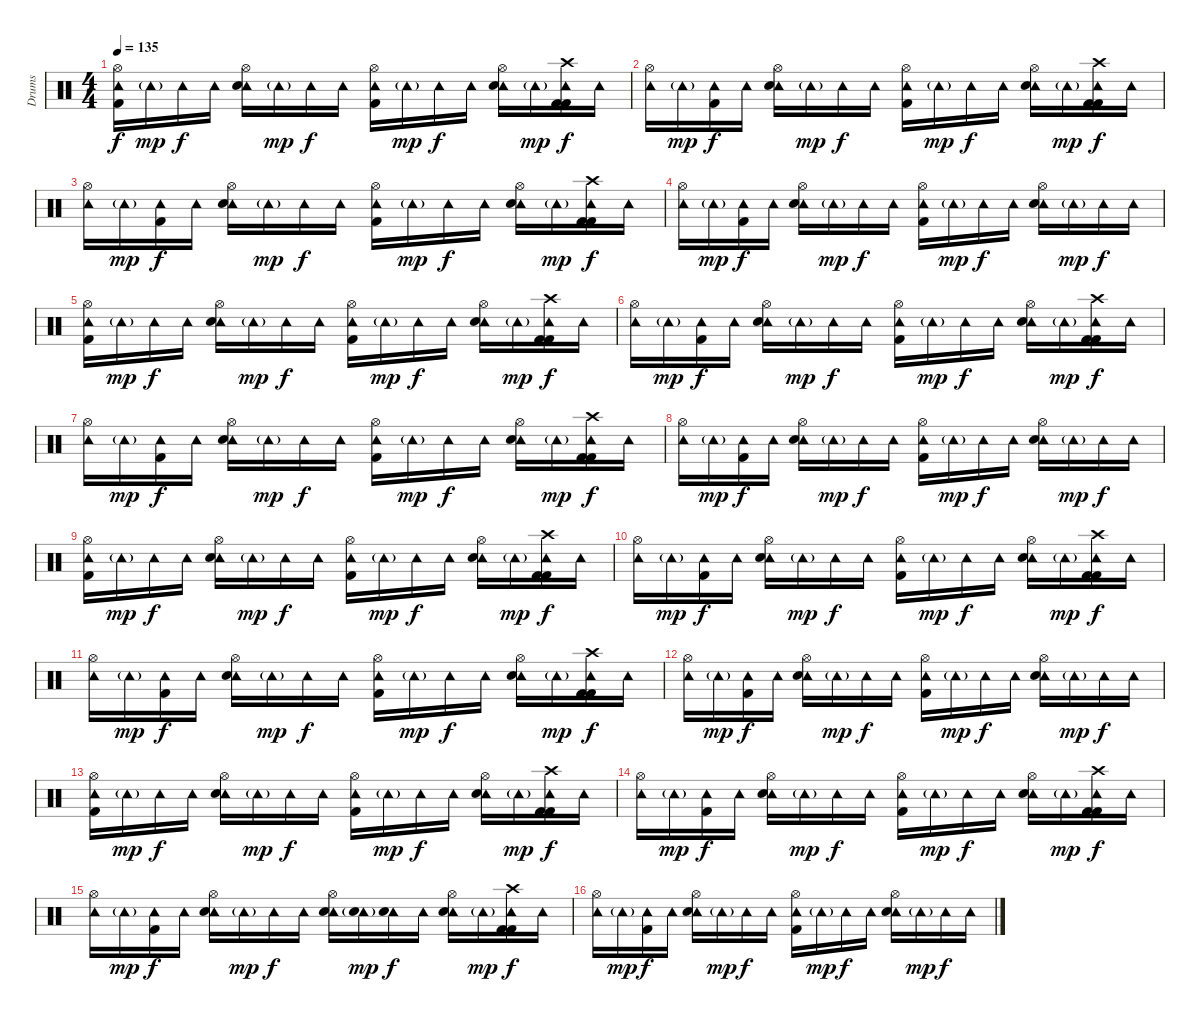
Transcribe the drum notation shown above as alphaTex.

\track ("Drums" "Drums") {instrument percussion}
\staff {score}
\articulation defaults
\ts (4 4)
\tempo 135
\clef neutral
\ks c
("Hi-Hat (open)" "Tambourine (hit)" "Kick (hit) 2").16{dy f} "Tambourine (hit)"{g}.16{dy mp} "Tambourine (hit)".16{dy f} "Tambourine (hit)".16 ("Hi-Hat (open)" "Tambourine (hit)" "Electric Snare (hit)").16 "Tambourine (hit)"{g}.16{dy mp} "Tambourine (hit)".16{dy f} "Tambourine (hit)".16 ("Hi-Hat (open)" "Tambourine (hit)" "Kick (hit) 2").16 "Tambourine (hit)"{g}.16{dy mp} "Tambourine (hit)".16{dy f} "Tambourine (hit)".16 ("Hi-Hat (open)" "Tambourine (hit)" "Electric Snare (hit)").16 "Tambourine (hit)"{g}.16{dy mp} ("Crash high (hit)" "Tambourine (hit)" "Kick (hit) 2" "Kick (hit) 2").16{dy f} "Tambourine (hit)".16 |
("Hi-Hat (open)" "Tambourine (hit)").16 "Tambourine (hit)"{g}.16{dy mp} ("Tambourine (hit)" "Kick (hit) 2").16{dy f} "Tambourine (hit)".16 ("Hi-Hat (open)" "Tambourine (hit)" "Electric Snare (hit)").16 "Tambourine (hit)"{g}.16{dy mp} "Tambourine (hit)".16{dy f} "Tambourine (hit)".16 ("Hi-Hat (open)" "Tambourine (hit)" "Kick (hit) 2").16 "Tambourine (hit)"{g}.16{dy mp} "Tambourine (hit)".16{dy f} "Tambourine (hit)".16 ("Hi-Hat (open)" "Tambourine (hit)" "Electric Snare (hit)").16 "Tambourine (hit)"{g}.16{dy mp} ("Crash high (hit)" "Tambourine (hit)" "Kick (hit) 2" "Kick (hit) 2").16{dy f} "Tambourine (hit)".16 |
("Hi-Hat (open)" "Tambourine (hit)").16 "Tambourine (hit)"{g}.16{dy mp} ("Tambourine (hit)" "Kick (hit) 2").16{dy f} "Tambourine (hit)".16 ("Hi-Hat (open)" "Tambourine (hit)" "Electric Snare (hit)").16 "Tambourine (hit)"{g}.16{dy mp} "Tambourine (hit)".16{dy f} "Tambourine (hit)".16 ("Hi-Hat (open)" "Tambourine (hit)" "Kick (hit) 2").16 "Tambourine (hit)"{g}.16{dy mp} "Tambourine (hit)".16{dy f} "Tambourine (hit)".16 ("Hi-Hat (open)" "Tambourine (hit)" "Electric Snare (hit)").16 "Tambourine (hit)"{g}.16{dy mp} ("Crash high (hit)" "Tambourine (hit)" "Kick (hit) 2" "Kick (hit) 2").16{dy f} "Tambourine (hit)".16 |
("Hi-Hat (open)" "Tambourine (hit)").16 "Tambourine (hit)"{g}.16{dy mp} ("Tambourine (hit)" "Kick (hit) 2").16{dy f} "Tambourine (hit)".16 ("Hi-Hat (open)" "Tambourine (hit)" "Electric Snare (hit)").16 "Tambourine (hit)"{g}.16{dy mp} "Tambourine (hit)".16{dy f} "Tambourine (hit)".16 ("Hi-Hat (open)" "Tambourine (hit)" "Kick (hit) 2").16 "Tambourine (hit)"{g}.16{dy mp} "Tambourine (hit)".16{dy f} "Tambourine (hit)".16 ("Hi-Hat (open)" "Tambourine (hit)" "Electric Snare (hit)").16 "Tambourine (hit)"{g}.16{dy mp} "Tambourine (hit)".16{dy f} "Tambourine (hit)".16 |
("Hi-Hat (open)" "Tambourine (hit)" "Kick (hit) 2").16 "Tambourine (hit)"{g}.16{dy mp} "Tambourine (hit)".16{dy f} "Tambourine (hit)".16 ("Hi-Hat (open)" "Tambourine (hit)" "Electric Snare (hit)").16 "Tambourine (hit)"{g}.16{dy mp} "Tambourine (hit)".16{dy f} "Tambourine (hit)".16 ("Hi-Hat (open)" "Tambourine (hit)" "Kick (hit) 2").16 "Tambourine (hit)"{g}.16{dy mp} "Tambourine (hit)".16{dy f} "Tambourine (hit)".16 ("Hi-Hat (open)" "Tambourine (hit)" "Electric Snare (hit)").16 "Tambourine (hit)"{g}.16{dy mp} ("Crash high (hit)" "Tambourine (hit)" "Kick (hit) 2" "Kick (hit) 2").16{dy f} "Tambourine (hit)".16 |
("Hi-Hat (open)" "Tambourine (hit)").16 "Tambourine (hit)"{g}.16{dy mp} ("Tambourine (hit)" "Kick (hit) 2").16{dy f} "Tambourine (hit)".16 ("Hi-Hat (open)" "Tambourine (hit)" "Electric Snare (hit)").16 "Tambourine (hit)"{g}.16{dy mp} "Tambourine (hit)".16{dy f} "Tambourine (hit)".16 ("Hi-Hat (open)" "Tambourine (hit)" "Kick (hit) 2").16 "Tambourine (hit)"{g}.16{dy mp} "Tambourine (hit)".16{dy f} "Tambourine (hit)".16 ("Hi-Hat (open)" "Tambourine (hit)" "Electric Snare (hit)").16 "Tambourine (hit)"{g}.16{dy mp} ("Crash high (hit)" "Tambourine (hit)" "Kick (hit) 2" "Kick (hit) 2").16{dy f} "Tambourine (hit)".16 |
("Hi-Hat (open)" "Tambourine (hit)").16 "Tambourine (hit)"{g}.16{dy mp} ("Tambourine (hit)" "Kick (hit) 2").16{dy f} "Tambourine (hit)".16 ("Hi-Hat (open)" "Tambourine (hit)" "Electric Snare (hit)").16 "Tambourine (hit)"{g}.16{dy mp} "Tambourine (hit)".16{dy f} "Tambourine (hit)".16 ("Hi-Hat (open)" "Tambourine (hit)" "Kick (hit) 2").16 "Tambourine (hit)"{g}.16{dy mp} "Tambourine (hit)".16{dy f} "Tambourine (hit)".16 ("Hi-Hat (open)" "Tambourine (hit)" "Electric Snare (hit)").16 "Tambourine (hit)"{g}.16{dy mp} ("Crash high (hit)" "Tambourine (hit)" "Kick (hit) 2" "Kick (hit) 2").16{dy f} "Tambourine (hit)".16 |
("Hi-Hat (open)" "Tambourine (hit)").16 "Tambourine (hit)"{g}.16{dy mp} ("Tambourine (hit)" "Kick (hit) 2").16{dy f} "Tambourine (hit)".16 ("Hi-Hat (open)" "Tambourine (hit)" "Electric Snare (hit)").16 "Tambourine (hit)"{g}.16{dy mp} "Tambourine (hit)".16{dy f} "Tambourine (hit)".16 ("Hi-Hat (open)" "Tambourine (hit)" "Kick (hit) 2").16 "Tambourine (hit)"{g}.16{dy mp} "Tambourine (hit)".16{dy f} "Tambourine (hit)".16 ("Hi-Hat (open)" "Tambourine (hit)" "Electric Snare (hit)").16 "Tambourine (hit)"{g}.16{dy mp} "Tambourine (hit)".16{dy f} "Tambourine (hit)".16 |
("Hi-Hat (open)" "Tambourine (hit)" "Kick (hit) 2").16 "Tambourine (hit)"{g}.16{dy mp} "Tambourine (hit)".16{dy f} "Tambourine (hit)".16 ("Hi-Hat (open)" "Tambourine (hit)" "Electric Snare (hit)").16 "Tambourine (hit)"{g}.16{dy mp} "Tambourine (hit)".16{dy f} "Tambourine (hit)".16 ("Hi-Hat (open)" "Tambourine (hit)" "Kick (hit) 2").16 "Tambourine (hit)"{g}.16{dy mp} "Tambourine (hit)".16{dy f} "Tambourine (hit)".16 ("Hi-Hat (open)" "Tambourine (hit)" "Electric Snare (hit)").16 "Tambourine (hit)"{g}.16{dy mp} ("Crash high (hit)" "Tambourine (hit)" "Kick (hit) 2" "Kick (hit) 2").16{dy f} "Tambourine (hit)".16 |
("Hi-Hat (open)" "Tambourine (hit)").16 "Tambourine (hit)"{g}.16{dy mp} ("Tambourine (hit)" "Kick (hit) 2").16{dy f} "Tambourine (hit)".16 ("Hi-Hat (open)" "Tambourine (hit)" "Electric Snare (hit)").16 "Tambourine (hit)"{g}.16{dy mp} "Tambourine (hit)".16{dy f} "Tambourine (hit)".16 ("Hi-Hat (open)" "Tambourine (hit)" "Kick (hit) 2").16 "Tambourine (hit)"{g}.16{dy mp} "Tambourine (hit)".16{dy f} "Tambourine (hit)".16 ("Hi-Hat (open)" "Tambourine (hit)" "Electric Snare (hit)").16 "Tambourine (hit)"{g}.16{dy mp} ("Crash high (hit)" "Tambourine (hit)" "Kick (hit) 2" "Kick (hit) 2").16{dy f} "Tambourine (hit)".16 |
("Hi-Hat (open)" "Tambourine (hit)").16 "Tambourine (hit)"{g}.16{dy mp} ("Tambourine (hit)" "Kick (hit) 2").16{dy f} "Tambourine (hit)".16 ("Hi-Hat (open)" "Tambourine (hit)" "Electric Snare (hit)").16 "Tambourine (hit)"{g}.16{dy mp} "Tambourine (hit)".16{dy f} "Tambourine (hit)".16 ("Hi-Hat (open)" "Tambourine (hit)" "Kick (hit) 2").16 "Tambourine (hit)"{g}.16{dy mp} "Tambourine (hit)".16{dy f} "Tambourine (hit)".16 ("Hi-Hat (open)" "Tambourine (hit)" "Electric Snare (hit)").16 "Tambourine (hit)"{g}.16{dy mp} ("Crash high (hit)" "Tambourine (hit)" "Kick (hit) 2" "Kick (hit) 2").16{dy f} "Tambourine (hit)".16 |
("Hi-Hat (open)" "Tambourine (hit)").16 "Tambourine (hit)"{g}.16{dy mp} ("Tambourine (hit)" "Kick (hit) 2").16{dy f} "Tambourine (hit)".16 ("Hi-Hat (open)" "Tambourine (hit)" "Electric Snare (hit)").16 "Tambourine (hit)"{g}.16{dy mp} "Tambourine (hit)".16{dy f} "Tambourine (hit)".16 ("Hi-Hat (open)" "Tambourine (hit)" "Kick (hit) 2").16 "Tambourine (hit)"{g}.16{dy mp} "Tambourine (hit)".16{dy f} "Tambourine (hit)".16 ("Hi-Hat (open)" "Tambourine (hit)" "Electric Snare (hit)").16 "Tambourine (hit)"{g}.16{dy mp} "Tambourine (hit)".16{dy f} "Tambourine (hit)".16 |
("Hi-Hat (open)" "Tambourine (hit)" "Kick (hit) 2").16 "Tambourine (hit)"{g}.16{dy mp} "Tambourine (hit)".16{dy f} "Tambourine (hit)".16 ("Hi-Hat (open)" "Tambourine (hit)" "Electric Snare (hit)").16 "Tambourine (hit)"{g}.16{dy mp} "Tambourine (hit)".16{dy f} "Tambourine (hit)".16 ("Hi-Hat (open)" "Tambourine (hit)" "Kick (hit) 2").16 "Tambourine (hit)"{g}.16{dy mp} "Tambourine (hit)".16{dy f} "Tambourine (hit)".16 ("Hi-Hat (open)" "Tambourine (hit)" "Electric Snare (hit)").16 "Tambourine (hit)"{g}.16{dy mp} ("Crash high (hit)" "Tambourine (hit)" "Kick (hit) 2" "Kick (hit) 2").16{dy f} "Tambourine (hit)".16 |
("Hi-Hat (open)" "Tambourine (hit)").16 "Tambourine (hit)"{g}.16{dy mp} ("Tambourine (hit)" "Kick (hit) 2").16{dy f} "Tambourine (hit)".16 ("Hi-Hat (open)" "Tambourine (hit)" "Electric Snare (hit)").16 "Tambourine (hit)"{g}.16{dy mp} "Tambourine (hit)".16{dy f} "Tambourine (hit)".16 ("Hi-Hat (open)" "Tambourine (hit)" "Kick (hit) 2").16 "Tambourine (hit)"{g}.16{dy mp} "Tambourine (hit)".16{dy f} "Tambourine (hit)".16 ("Hi-Hat (open)" "Tambourine (hit)" "Electric Snare (hit)").16 "Tambourine (hit)"{g}.16{dy mp} ("Crash high (hit)" "Tambourine (hit)" "Kick (hit) 2" "Kick (hit) 2").16{dy f} "Tambourine (hit)".16 |
("Hi-Hat (open)" "Tambourine (hit)").16 "Tambourine (hit)"{g}.16{dy mp} ("Tambourine (hit)" "Kick (hit) 2").16{dy f} "Tambourine (hit)".16 ("Hi-Hat (open)" "Tambourine (hit)" "Electric Snare (hit)").16 "Tambourine (hit)"{g}.16{dy mp} "Tambourine (hit)".16{dy f} "Tambourine (hit)".16 ("Hi-Hat (open)" "Tambourine (hit)" "Electric Snare (hit)").16 ("Tambourine (hit)"{g} "Electric Snare (hit)").16{dy mp} ("Tambourine (hit)" "Electric Snare (hit)").16{dy f} "Tambourine (hit)".16 ("Hi-Hat (open)" "Tambourine (hit)" "Electric Snare (hit)").16 "Tambourine (hit)"{g}.16{dy mp} ("Crash high (hit)" "Tambourine (hit)" "Kick (hit) 2" "Kick (hit) 2").16{dy f} "Tambourine (hit)".16 |
("Hi-Hat (open)" "Tambourine (hit)").16 "Tambourine (hit)"{g}.16{dy mp} ("Tambourine (hit)" "Kick (hit) 2").16{dy f} "Tambourine (hit)".16 ("Hi-Hat (open)" "Tambourine (hit)" "Electric Snare (hit)").16 "Tambourine (hit)"{g}.16{dy mp} "Tambourine (hit)".16{dy f} "Tambourine (hit)".16 ("Hi-Hat (open)" "Tambourine (hit)" "Kick (hit) 2").16 "Tambourine (hit)"{g}.16{dy mp} "Tambourine (hit)".16{dy f} "Tambourine (hit)".16 ("Hi-Hat (open)" "Tambourine (hit)" "Electric Snare (hit)").16 "Tambourine (hit)"{g}.16{dy mp} "Tambourine (hit)".16{dy f} "Tambourine (hit)".16
